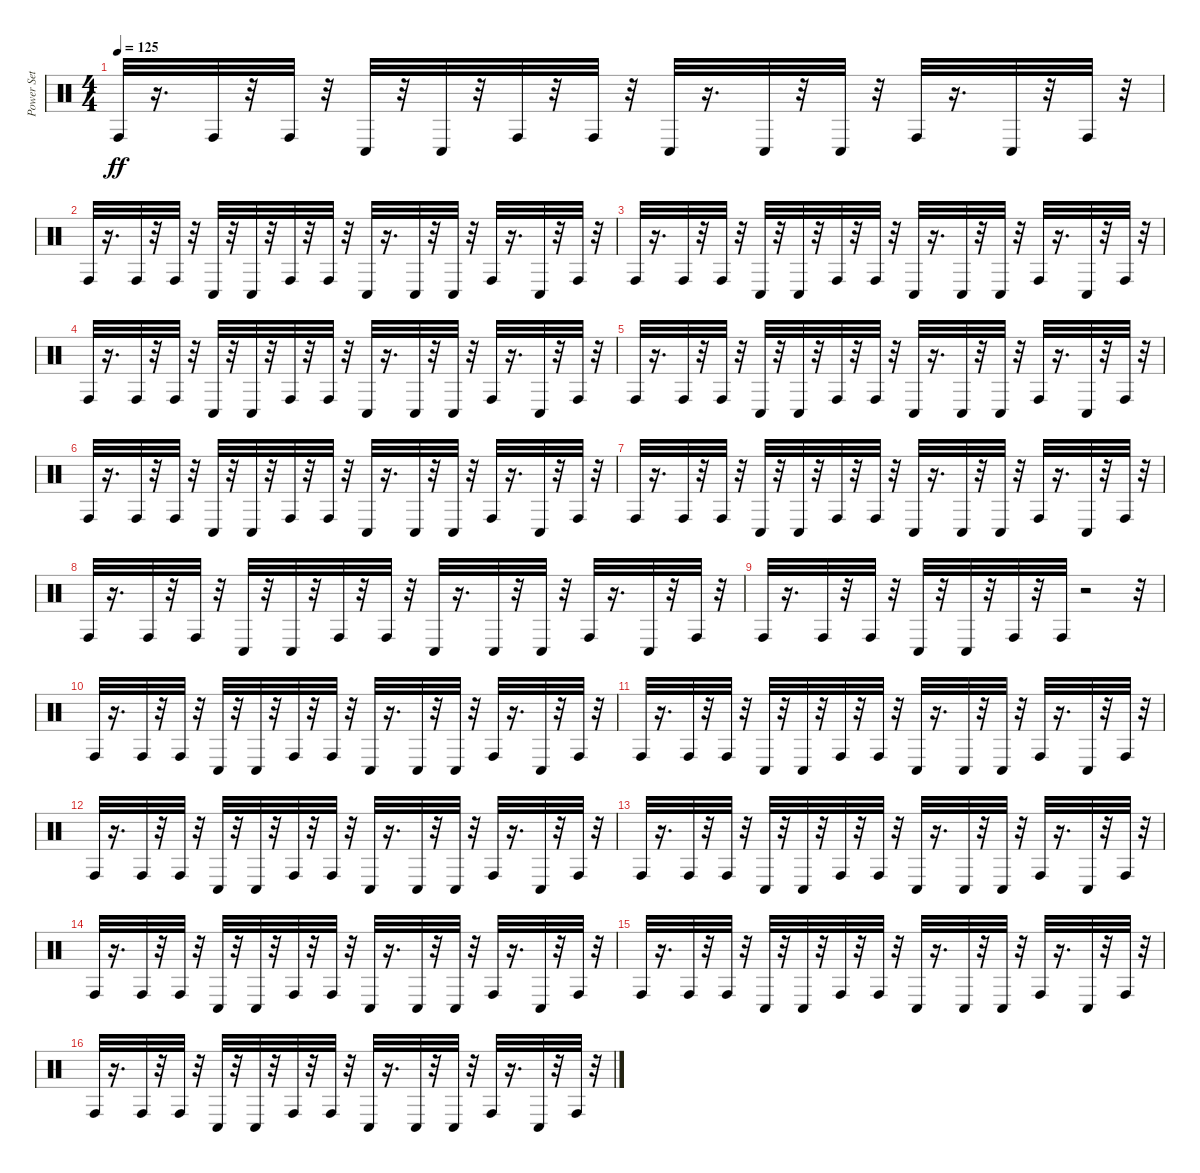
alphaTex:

\track ("Power Set" "Power Set") {instrument percussion}
\staff {score}
\articulation defaults
\ts (4 4)
\tempo 125
\clef neutral
\ks c "Conga high (hit)".32{dy ff}
r.16{d} "Conga high (hit)".32 r.32 "Conga high (hit)".32 r.32 "Conga low (hit)".32 r.32 "Conga low (hit)".32 r.32 "Conga high (hit)".32 r.32 "Conga high (hit)".32 r.32 "Conga low (hit)".32 r.16{d} "Conga low (hit)".32 r.32 "Conga low (hit)".32 r.32 "Conga high (hit)".32 r.16{d} "Conga low (hit)".32 r.32 "Conga high (hit)".32 r.32 |
"Conga high (hit)".32 r.16{d} "Conga high (hit)".32 r.32 "Conga high (hit)".32 r.32 "Conga low (hit)".32 r.32 "Conga low (hit)".32 r.32 "Conga high (hit)".32 r.32 "Conga high (hit)".32 r.32 "Conga low (hit)".32 r.16{d} "Conga low (hit)".32 r.32 "Conga low (hit)".32 r.32 "Conga high (hit)".32 r.16{d} "Conga low (hit)".32 r.32 "Conga high (hit)".32 r.32 |
"Conga high (hit)".32 r.16{d} "Conga high (hit)".32 r.32 "Conga high (hit)".32 r.32 "Conga low (hit)".32 r.32 "Conga low (hit)".32 r.32 "Conga high (hit)".32 r.32 "Conga high (hit)".32 r.32 "Conga low (hit)".32 r.16{d} "Conga low (hit)".32 r.32 "Conga low (hit)".32 r.32 "Conga high (hit)".32 r.16{d} "Conga low (hit)".32 r.32 "Conga high (hit)".32 r.32 |
"Conga high (hit)".32 r.16{d} "Conga high (hit)".32 r.32 "Conga high (hit)".32 r.32 "Conga low (hit)".32 r.32 "Conga low (hit)".32 r.32 "Conga high (hit)".32 r.32 "Conga high (hit)".32 r.32 "Conga low (hit)".32 r.16{d} "Conga low (hit)".32 r.32 "Conga low (hit)".32 r.32 "Conga high (hit)".32 r.16{d} "Conga low (hit)".32 r.32 "Conga high (hit)".32 r.32 |
"Conga high (hit)".32 r.16{d} "Conga high (hit)".32 r.32 "Conga high (hit)".32 r.32 "Conga low (hit)".32 r.32 "Conga low (hit)".32 r.32 "Conga high (hit)".32 r.32 "Conga high (hit)".32 r.32 "Conga low (hit)".32 r.16{d} "Conga low (hit)".32 r.32 "Conga low (hit)".32 r.32 "Conga high (hit)".32 r.16{d} "Conga low (hit)".32 r.32 "Conga high (hit)".32 r.32 |
"Conga high (hit)".32 r.16{d} "Conga high (hit)".32 r.32 "Conga high (hit)".32 r.32 "Conga low (hit)".32 r.32 "Conga low (hit)".32 r.32 "Conga high (hit)".32 r.32 "Conga high (hit)".32 r.32 "Conga low (hit)".32 r.16{d} "Conga low (hit)".32 r.32 "Conga low (hit)".32 r.32 "Conga high (hit)".32 r.16{d} "Conga low (hit)".32 r.32 "Conga high (hit)".32 r.32 |
"Conga high (hit)".32 r.16{d} "Conga high (hit)".32 r.32 "Conga high (hit)".32 r.32 "Conga low (hit)".32 r.32 "Conga low (hit)".32 r.32 "Conga high (hit)".32 r.32 "Conga high (hit)".32 r.32 "Conga low (hit)".32 r.16{d} "Conga low (hit)".32 r.32 "Conga low (hit)".32 r.32 "Conga high (hit)".32 r.16{d} "Conga low (hit)".32 r.32 "Conga high (hit)".32 r.32 |
"Conga high (hit)".32 r.16{d} "Conga high (hit)".32 r.32 "Conga high (hit)".32 r.32 "Conga low (hit)".32 r.32 "Conga low (hit)".32 r.32 "Conga high (hit)".32 r.32 "Conga high (hit)".32 r.32 "Conga low (hit)".32 r.16{d} "Conga low (hit)".32 r.32 "Conga low (hit)".32 r.32 "Conga high (hit)".32 r.16{d} "Conga low (hit)".32 r.32 "Conga high (hit)".32 r.32 |
"Conga high (hit)".32 r.16{d} "Conga high (hit)".32 r.32 "Conga high (hit)".32 r.32 "Conga low (hit)".32 r.32 "Conga low (hit)".32 r.32 "Conga high (hit)".32 r.32 "Conga high (hit)".32 r.2 r.32 |
"Conga high (hit)".32 r.16{d} "Conga high (hit)".32 r.32 "Conga high (hit)".32 r.32 "Conga low (hit)".32 r.32 "Conga low (hit)".32 r.32 "Conga high (hit)".32 r.32 "Conga high (hit)".32 r.32 "Conga low (hit)".32 r.16{d} "Conga low (hit)".32 r.32 "Conga low (hit)".32 r.32 "Conga high (hit)".32 r.16{d} "Conga low (hit)".32 r.32 "Conga high (hit)".32 r.32 |
"Conga high (hit)".32 r.16{d} "Conga high (hit)".32 r.32 "Conga high (hit)".32 r.32 "Conga low (hit)".32 r.32 "Conga low (hit)".32 r.32 "Conga high (hit)".32 r.32 "Conga high (hit)".32 r.32 "Conga low (hit)".32 r.16{d} "Conga low (hit)".32 r.32 "Conga low (hit)".32 r.32 "Conga high (hit)".32 r.16{d} "Conga low (hit)".32 r.32 "Conga high (hit)".32 r.32 |
"Conga high (hit)".32 r.16{d} "Conga high (hit)".32 r.32 "Conga high (hit)".32 r.32 "Conga low (hit)".32 r.32 "Conga low (hit)".32 r.32 "Conga high (hit)".32 r.32 "Conga high (hit)".32 r.32 "Conga low (hit)".32 r.16{d} "Conga low (hit)".32 r.32 "Conga low (hit)".32 r.32 "Conga high (hit)".32 r.16{d} "Conga low (hit)".32 r.32 "Conga high (hit)".32 r.32 |
"Conga high (hit)".32 r.16{d} "Conga high (hit)".32 r.32 "Conga high (hit)".32 r.32 "Conga low (hit)".32 r.32 "Conga low (hit)".32 r.32 "Conga high (hit)".32 r.32 "Conga high (hit)".32 r.32 "Conga low (hit)".32 r.16{d} "Conga low (hit)".32 r.32 "Conga low (hit)".32 r.32 "Conga high (hit)".32 r.16{d} "Conga low (hit)".32 r.32 "Conga high (hit)".32 r.32 |
"Conga high (hit)".32 r.16{d} "Conga high (hit)".32 r.32 "Conga high (hit)".32 r.32 "Conga low (hit)".32 r.32 "Conga low (hit)".32 r.32 "Conga high (hit)".32 r.32 "Conga high (hit)".32 r.32 "Conga low (hit)".32 r.16{d} "Conga low (hit)".32 r.32 "Conga low (hit)".32 r.32 "Conga high (hit)".32 r.16{d} "Conga low (hit)".32 r.32 "Conga high (hit)".32 r.32 |
"Conga high (hit)".32 r.16{d} "Conga high (hit)".32 r.32 "Conga high (hit)".32 r.32 "Conga low (hit)".32 r.32 "Conga low (hit)".32 r.32 "Conga high (hit)".32 r.32 "Conga high (hit)".32 r.32 "Conga low (hit)".32 r.16{d} "Conga low (hit)".32 r.32 "Conga low (hit)".32 r.32 "Conga high (hit)".32 r.16{d} "Conga low (hit)".32 r.32 "Conga high (hit)".32 r.32 |
"Conga high (hit)".32 r.16{d} "Conga high (hit)".32 r.32 "Conga high (hit)".32 r.32 "Conga low (hit)".32 r.32 "Conga low (hit)".32 r.32 "Conga high (hit)".32 r.32 "Conga high (hit)".32 r.32 "Conga low (hit)".32 r.16{d} "Conga low (hit)".32 r.32 "Conga low (hit)".32 r.32 "Conga high (hit)".32 r.16{d} "Conga low (hit)".32 r.32 "Conga high (hit)".32 r.32
